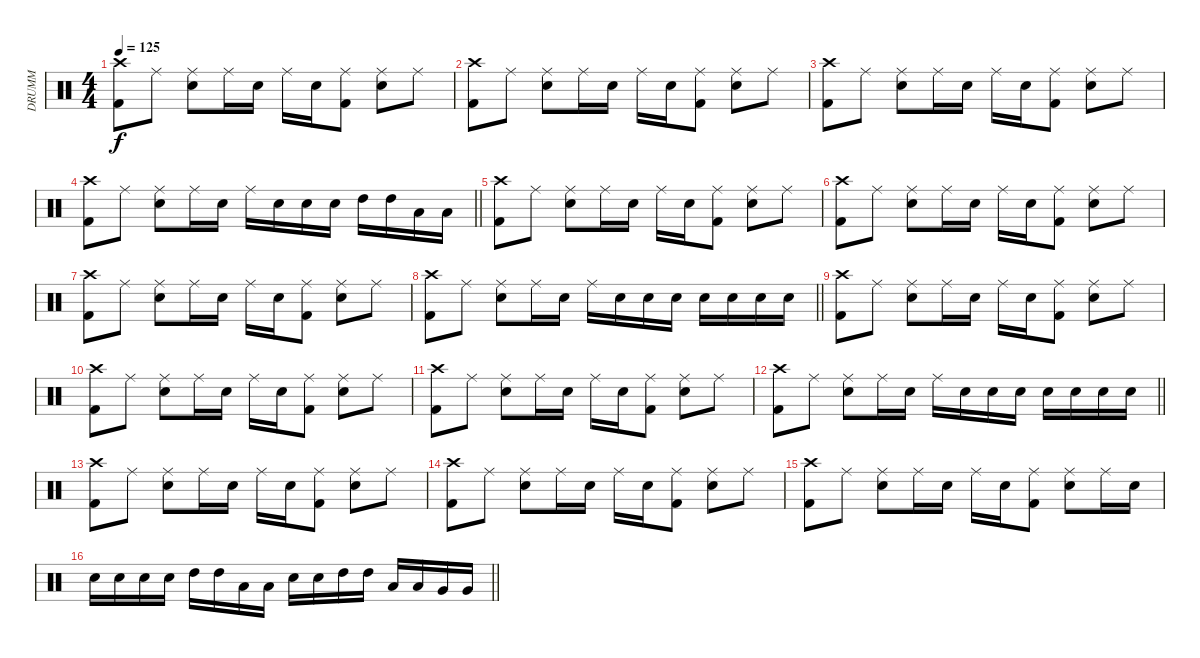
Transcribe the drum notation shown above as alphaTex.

\track ("DRUMM" "DRUMM") {instrument percussion}
\staff {score}
\articulation defaults
\ts (4 4)
\tempo 125
\clef neutral
\ks c
("Kick (hit) 2" "Crash high (hit)").8{dy f} "Ride (middle)".8 ("Ride (middle)" "Snare (hit) 2").8 "Ride (middle)".16 "Snare (hit) 2".16 "Ride (middle)".16 "Snare (hit) 2".16 ("Kick (hit) 2" "Ride (middle)").8 ("Ride (middle)" "Snare (hit) 2").8 "Ride (middle)".8 |
("Kick (hit) 2" "Crash high (hit)").8 "Ride (middle)".8 ("Ride (middle)" "Snare (hit) 2").8 "Ride (middle)".16 "Snare (hit) 2".16 "Ride (middle)".16 "Snare (hit) 2".16 ("Kick (hit) 2" "Ride (middle)").8 ("Ride (middle)" "Snare (hit) 2").8 "Ride (middle)".8 |
("Kick (hit) 2" "Crash high (hit)").8 "Ride (middle)".8 ("Ride (middle)" "Snare (hit) 2").8 "Ride (middle)".16 "Snare (hit) 2".16 "Ride (middle)".16 "Snare (hit) 2".16 ("Kick (hit) 2" "Ride (middle)").8 ("Ride (middle)" "Snare (hit) 2").8 "Ride (middle)".8 |
\barLineRight lightlight
("Kick (hit) 2" "Crash high (hit)").8 "Ride (middle)".8 ("Ride (middle)" "Snare (hit) 2").8 "Ride (middle)".16 "Snare (hit) 2".16 "Ride (middle)".16 "Snare (hit) 2".16 "Snare (hit) 2".16 "Snare (hit) 2".16 "High Tom (hit)".16 "High Tom (hit)".16 "Low Tom (hit)".16 "Low Tom (hit)".16 |
("Kick (hit) 2" "Crash high (hit)").8 "Ride (middle)".8 ("Ride (middle)" "Snare (hit) 2").8 "Ride (middle)".16 "Snare (hit) 2".16 "Ride (middle)".16 "Snare (hit) 2".16 ("Kick (hit) 2" "Ride (middle)").8 ("Ride (middle)" "Snare (hit) 2").8 "Ride (middle)".8 |
("Kick (hit) 2" "Crash high (hit)").8 "Ride (middle)".8 ("Ride (middle)" "Snare (hit) 2").8 "Ride (middle)".16 "Snare (hit) 2".16 "Ride (middle)".16 "Snare (hit) 2".16 ("Kick (hit) 2" "Ride (middle)").8 ("Ride (middle)" "Snare (hit) 2").8 "Ride (middle)".8 |
("Kick (hit) 2" "Crash high (hit)").8 "Ride (middle)".8 ("Ride (middle)" "Snare (hit) 2").8 "Ride (middle)".16 "Snare (hit) 2".16 "Ride (middle)".16 "Snare (hit) 2".16 ("Kick (hit) 2" "Ride (middle)").8 ("Ride (middle)" "Snare (hit) 2").8 "Ride (middle)".8 |
\barLineRight lightlight
("Kick (hit) 2" "Crash high (hit)").8 "Ride (middle)".8 ("Ride (middle)" "Snare (hit) 2").8 "Ride (middle)".16 "Snare (hit) 2".16 "Ride (middle)".16 "Snare (hit) 2".16 "Snare (hit) 2".16 "Snare (hit) 2".16 "Snare (hit) 2".16 "Snare (hit) 2".16 "Snare (hit) 2".16 "Snare (hit) 2".16 |
("Kick (hit) 2" "Crash high (hit)").8 "Ride (middle)".8 ("Ride (middle)" "Snare (hit) 2").8 "Ride (middle)".16 "Snare (hit) 2".16 "Ride (middle)".16 "Snare (hit) 2".16 ("Kick (hit) 2" "Ride (middle)").8 ("Ride (middle)" "Snare (hit) 2").8 "Ride (middle)".8 |
("Kick (hit) 2" "Crash high (hit)").8 "Ride (middle)".8 ("Ride (middle)" "Snare (hit) 2").8 "Ride (middle)".16 "Snare (hit) 2".16 "Ride (middle)".16 "Snare (hit) 2".16 ("Kick (hit) 2" "Ride (middle)").8 ("Ride (middle)" "Snare (hit) 2").8 "Ride (middle)".8 |
("Kick (hit) 2" "Crash high (hit)").8 "Ride (middle)".8 ("Ride (middle)" "Snare (hit) 2").8 "Ride (middle)".16 "Snare (hit) 2".16 "Ride (middle)".16 "Snare (hit) 2".16 ("Kick (hit) 2" "Ride (middle)").8 ("Ride (middle)" "Snare (hit) 2").8 "Ride (middle)".8 |
\barLineRight lightlight
("Kick (hit) 2" "Crash high (hit)").8 "Ride (middle)".8 ("Ride (middle)" "Snare (hit) 2").8 "Ride (middle)".16 "Snare (hit) 2".16 "Ride (middle)".16 "Snare (hit) 2".16 "Snare (hit) 2".16 "Snare (hit) 2".16 "Snare (hit) 2".16 "Snare (hit) 2".16 "Snare (hit) 2".16 "Snare (hit) 2".16 |
("Kick (hit) 2" "Crash high (hit)").8 "Ride (middle)".8 ("Ride (middle)" "Snare (hit) 2").8 "Ride (middle)".16 "Snare (hit) 2".16 "Ride (middle)".16 "Snare (hit) 2".16 ("Kick (hit) 2" "Ride (middle)").8 ("Ride (middle)" "Snare (hit) 2").8 "Ride (middle)".8 |
("Kick (hit) 2" "Crash high (hit)").8 "Ride (middle)".8 ("Ride (middle)" "Snare (hit) 2").8 "Ride (middle)".16 "Snare (hit) 2".16 "Ride (middle)".16 "Snare (hit) 2".16 ("Kick (hit) 2" "Ride (middle)").8 ("Ride (middle)" "Snare (hit) 2").8 "Ride (middle)".8 |
("Kick (hit) 2" "Crash high (hit)").8 "Ride (middle)".8 ("Ride (middle)" "Snare (hit) 2").8 "Ride (middle)".16 "Snare (hit) 2".16 "Ride (middle)".16 "Snare (hit) 2".16 ("Kick (hit) 2" "Ride (middle)").8 ("Ride (middle)" "Snare (hit) 2").8 "Ride (middle)".16 "Snare (hit) 2".16 |
\barLineRight lightlight "Snare (hit) 2".16 "Snare (hit) 2".16 "Snare (hit) 2".16 "Snare (hit) 2".16 "High Tom (hit)".16 "High Tom (hit)".16 "Low Tom (hit)".16 "Low Tom (hit)".16 "Snare (hit) 2".16 "Snare (hit) 2".16 "High Tom (hit)".16 "High Tom (hit)".16 "Low Tom (hit)".16 "Low Tom (hit)".16 "Very Low Tom (hit)".16 "Very Low Tom (hit)".16
